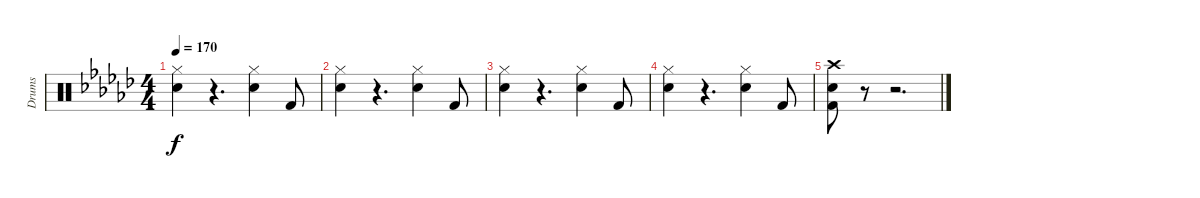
\track ("Drums" "Drums") {instrument percussion}
\staff {score}
\articulation defaults
\ts (4 4)
\tempo 170
\clef neutral
\ks ebminor
("Hi-Hat (closed)" "Snare (hit) 2").4{dy f} r.4{d} ("Hi-Hat (closed)" "Snare (hit) 2").4 "Kick (hit) 2".8 |
("Hi-Hat (closed)" "Snare (hit) 2").4 r.4{d} ("Hi-Hat (closed)" "Snare (hit) 2").4 "Kick (hit) 2".8 |
("Hi-Hat (closed)" "Snare (hit) 2").4 r.4{d} ("Hi-Hat (closed)" "Snare (hit) 2").4 "Kick (hit) 2".8 |
("Hi-Hat (closed)" "Snare (hit) 2").4 r.4{d} ("Hi-Hat (closed)" "Snare (hit) 2").4 "Kick (hit) 2".8 |
("Crash high (hit)" "Snare (hit) 2" "Kick (hit) 2").8 r.8 r.2{d}
